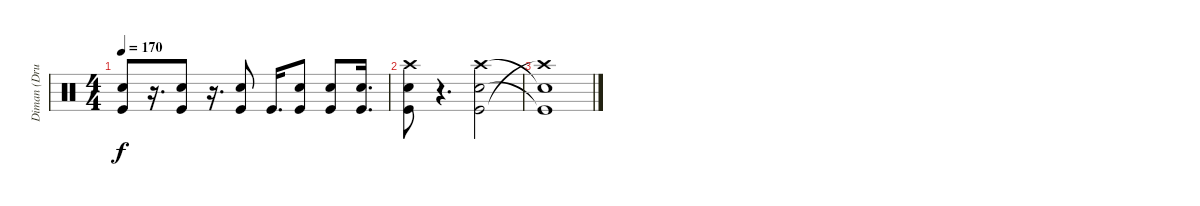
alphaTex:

\track ("Diman (Drums)" "Diman (Dru") {instrument percussion}
\staff {score}
\articulation defaults
\ts (4 4)
\tempo 170
\clef neutral
\ks c
("Snare (hit) 2" "Kick (hit)").8{dy f} r.16{d} ("Snare (hit) 2" "Kick (hit)").8 r.16{d} ("Snare (hit) 2" "Kick (hit)").8 "Kick (hit)".16{d} ("Kick (hit)" "Snare (hit) 2").8 ("Snare (hit) 2" "Kick (hit)").8 ("Snare (hit) 2" "Kick (hit)").16{d} |
("Crash high (hit)" "Snare (hit) 2" "Kick (hit)").8 r.4{d} ("Snare (hit) 2" "Crash high (hit)" "Kick (hit)").2 |
("Kick (hit)"{t} "Snare (hit) 2"{t} "Crash high (hit)"{t}).1
